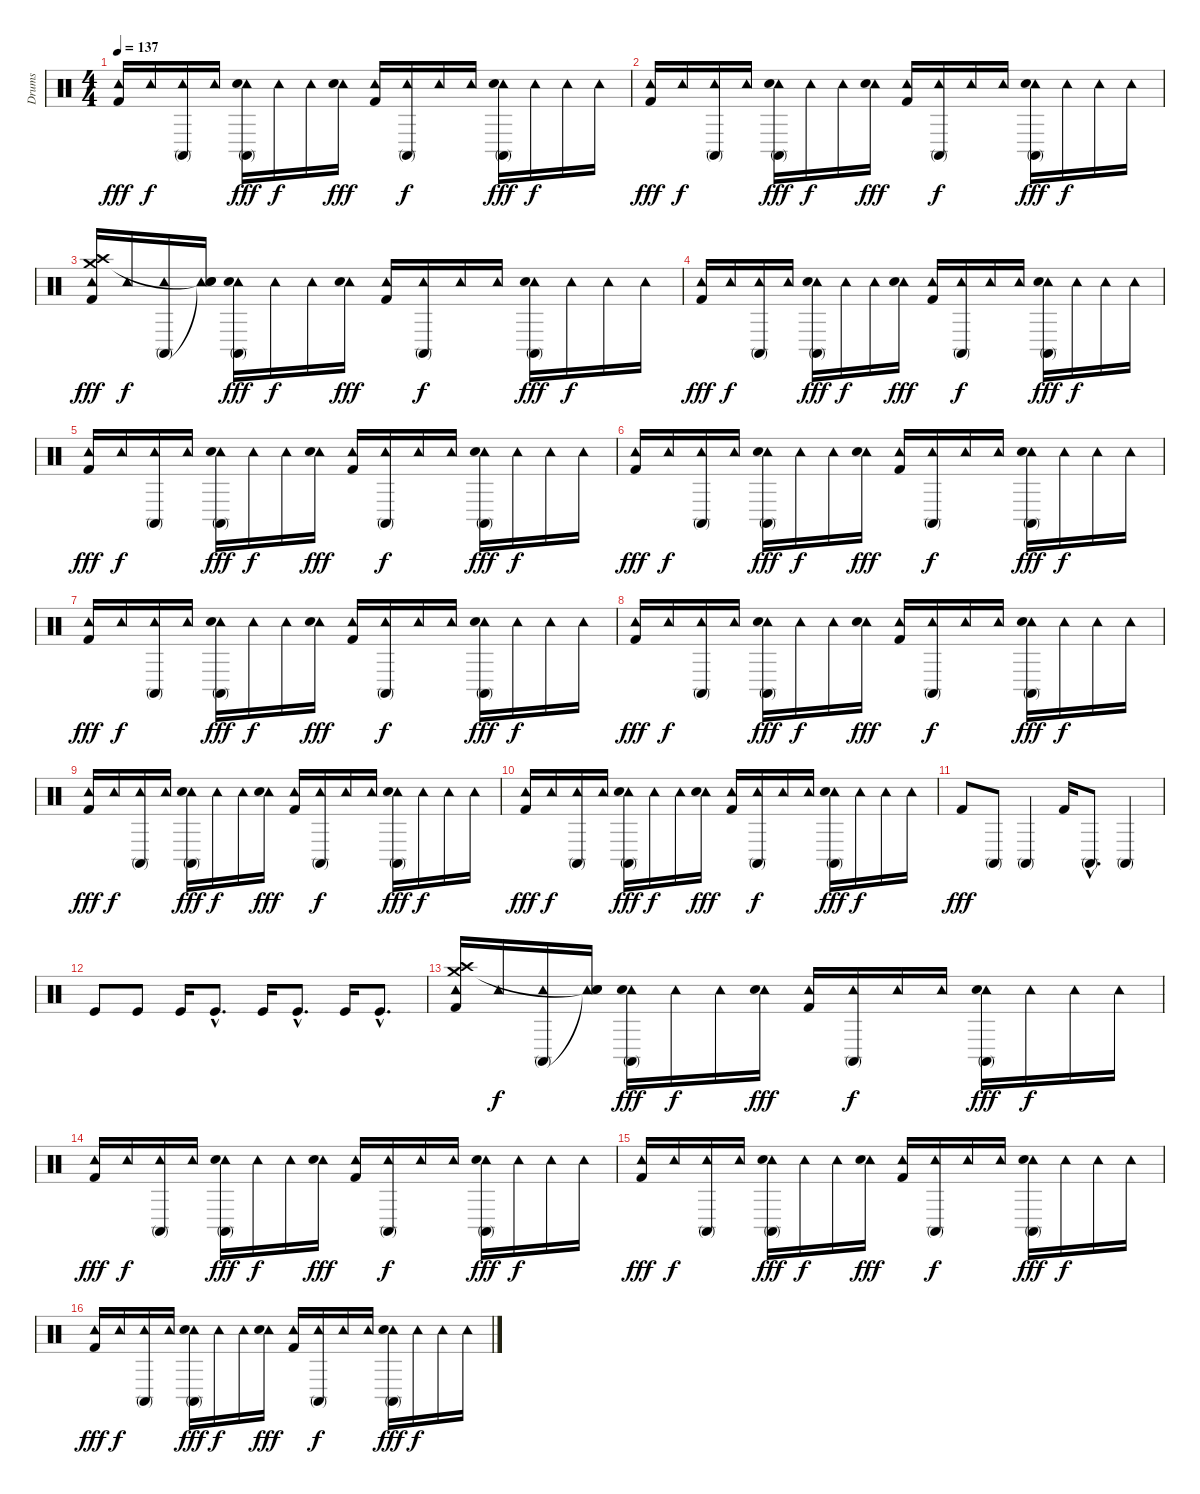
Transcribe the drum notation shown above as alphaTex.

\track ("Drums" "Drums") {instrument percussion}
\staff {score}
\articulation defaults
\ts (4 4)
\tempo 137
\clef neutral
\ks c
("Tambourine (hit)" "Kick (hit) 2").16{dy fff} "Tambourine (hit)".16{dy f} ("Tambourine (hit)" "Conga high (mute)").16 "Tambourine (hit)".16 ("Tambourine (hit)" "Conga high (mute)" "Electric Snare (hit)").16{dy fff} "Tambourine (hit)".16{dy f} "Tambourine (hit)".16 ("Tambourine (hit)" "Electric Snare (hit)").16{dy fff} ("Tambourine (hit)" "Kick (hit) 2").16 ("Tambourine (hit)" "Conga high (mute)").16{dy f} "Tambourine (hit)".16 "Tambourine (hit)".16 ("Tambourine (hit)" "Conga high (mute)" "Electric Snare (hit)").16{dy fff} "Tambourine (hit)".16{dy f} "Tambourine (hit)".16 "Tambourine (hit)".16 |
("Tambourine (hit)" "Kick (hit) 2").16{dy fff} "Tambourine (hit)".16{dy f} ("Tambourine (hit)" "Conga high (mute)").16 "Tambourine (hit)".16 ("Tambourine (hit)" "Conga high (mute)" "Electric Snare (hit)").16{dy fff} "Tambourine (hit)".16{dy f} "Tambourine (hit)".16 ("Tambourine (hit)" "Electric Snare (hit)").16{dy fff} ("Tambourine (hit)" "Kick (hit) 2").16 ("Tambourine (hit)" "Conga high (mute)").16{dy f} "Tambourine (hit)".16 "Tambourine (hit)".16 ("Tambourine (hit)" "Conga high (mute)" "Electric Snare (hit)").16{dy fff} "Tambourine (hit)".16{dy f} "Tambourine (hit)".16 "Tambourine (hit)".16 |
("Tambourine (hit)" "Crash high (hit)" "Crash medium (hit)" "Kick (hit) 2").16{dy fff} "Tambourine (hit)".16{dy f} ("Tambourine (hit)" "Conga high (mute)").16 ("Tambourine (hit)" "Snare (hit)"{t} "Snare (hit)"{t}).16 ("Tambourine (hit)" "Conga high (mute)" "Electric Snare (hit)").16{dy fff} "Tambourine (hit)".16{dy f} "Tambourine (hit)".16 ("Tambourine (hit)" "Electric Snare (hit)").16{dy fff} ("Tambourine (hit)" "Kick (hit) 2").16 ("Tambourine (hit)" "Conga high (mute)").16{dy f} "Tambourine (hit)".16 "Tambourine (hit)".16 ("Tambourine (hit)" "Conga high (mute)" "Electric Snare (hit)").16{dy fff} "Tambourine (hit)".16{dy f} "Tambourine (hit)".16 "Tambourine (hit)".16 |
("Tambourine (hit)" "Kick (hit) 2").16{dy fff} "Tambourine (hit)".16{dy f} ("Tambourine (hit)" "Conga high (mute)").16 "Tambourine (hit)".16 ("Tambourine (hit)" "Conga high (mute)" "Electric Snare (hit)").16{dy fff} "Tambourine (hit)".16{dy f} "Tambourine (hit)".16 ("Tambourine (hit)" "Electric Snare (hit)").16{dy fff} ("Tambourine (hit)" "Kick (hit) 2").16 ("Tambourine (hit)" "Conga high (mute)").16{dy f} "Tambourine (hit)".16 "Tambourine (hit)".16 ("Tambourine (hit)" "Conga high (mute)" "Electric Snare (hit)").16{dy fff} "Tambourine (hit)".16{dy f} "Tambourine (hit)".16 "Tambourine (hit)".16 |
("Tambourine (hit)" "Kick (hit) 2").16{dy fff} "Tambourine (hit)".16{dy f} ("Tambourine (hit)" "Conga high (mute)").16 "Tambourine (hit)".16 ("Tambourine (hit)" "Conga high (mute)" "Electric Snare (hit)").16{dy fff} "Tambourine (hit)".16{dy f} "Tambourine (hit)".16 ("Tambourine (hit)" "Electric Snare (hit)").16{dy fff} ("Tambourine (hit)" "Kick (hit) 2").16 ("Tambourine (hit)" "Conga high (mute)").16{dy f} "Tambourine (hit)".16 "Tambourine (hit)".16 ("Tambourine (hit)" "Conga high (mute)" "Electric Snare (hit)").16{dy fff} "Tambourine (hit)".16{dy f} "Tambourine (hit)".16 "Tambourine (hit)".16 |
("Tambourine (hit)" "Kick (hit) 2").16{dy fff} "Tambourine (hit)".16{dy f} ("Tambourine (hit)" "Conga high (mute)").16 "Tambourine (hit)".16 ("Tambourine (hit)" "Conga high (mute)" "Electric Snare (hit)").16{dy fff} "Tambourine (hit)".16{dy f} "Tambourine (hit)".16 ("Tambourine (hit)" "Electric Snare (hit)").16{dy fff} ("Tambourine (hit)" "Kick (hit) 2").16 ("Tambourine (hit)" "Conga high (mute)").16{dy f} "Tambourine (hit)".16 "Tambourine (hit)".16 ("Tambourine (hit)" "Conga high (mute)" "Electric Snare (hit)").16{dy fff} "Tambourine (hit)".16{dy f} "Tambourine (hit)".16 "Tambourine (hit)".16 |
("Tambourine (hit)" "Kick (hit) 2").16{dy fff} "Tambourine (hit)".16{dy f} ("Tambourine (hit)" "Conga high (mute)").16 "Tambourine (hit)".16 ("Tambourine (hit)" "Conga high (mute)" "Electric Snare (hit)").16{dy fff} "Tambourine (hit)".16{dy f} "Tambourine (hit)".16 ("Tambourine (hit)" "Electric Snare (hit)").16{dy fff} ("Tambourine (hit)" "Kick (hit) 2").16 ("Tambourine (hit)" "Conga high (mute)").16{dy f} "Tambourine (hit)".16 "Tambourine (hit)".16 ("Tambourine (hit)" "Conga high (mute)" "Electric Snare (hit)").16{dy fff} "Tambourine (hit)".16{dy f} "Tambourine (hit)".16 "Tambourine (hit)".16 |
("Tambourine (hit)" "Kick (hit) 2").16{dy fff} "Tambourine (hit)".16{dy f} ("Tambourine (hit)" "Conga high (mute)").16 "Tambourine (hit)".16 ("Tambourine (hit)" "Conga high (mute)" "Electric Snare (hit)").16{dy fff} "Tambourine (hit)".16{dy f} "Tambourine (hit)".16 ("Tambourine (hit)" "Electric Snare (hit)").16{dy fff} ("Tambourine (hit)" "Kick (hit) 2").16 ("Tambourine (hit)" "Conga high (mute)").16{dy f} "Tambourine (hit)".16 "Tambourine (hit)".16 ("Tambourine (hit)" "Conga high (mute)" "Electric Snare (hit)").16{dy fff} "Tambourine (hit)".16{dy f} "Tambourine (hit)".16 "Tambourine (hit)".16 |
("Tambourine (hit)" "Kick (hit) 2").16{dy fff} "Tambourine (hit)".16{dy f} ("Tambourine (hit)" "Conga high (mute)").16 "Tambourine (hit)".16 ("Tambourine (hit)" "Conga high (mute)" "Electric Snare (hit)").16{dy fff} "Tambourine (hit)".16{dy f} "Tambourine (hit)".16 ("Tambourine (hit)" "Electric Snare (hit)").16{dy fff} ("Tambourine (hit)" "Kick (hit) 2").16 ("Tambourine (hit)" "Conga high (mute)").16{dy f} "Tambourine (hit)".16 "Tambourine (hit)".16 ("Tambourine (hit)" "Conga high (mute)" "Electric Snare (hit)").16{dy fff} "Tambourine (hit)".16{dy f} "Tambourine (hit)".16 "Tambourine (hit)".16 |
("Tambourine (hit)" "Kick (hit) 2").16{dy fff} "Tambourine (hit)".16{dy f} ("Tambourine (hit)" "Conga high (mute)").16 "Tambourine (hit)".16 ("Tambourine (hit)" "Conga high (mute)" "Electric Snare (hit)").16{dy fff} "Tambourine (hit)".16{dy f} "Tambourine (hit)".16 ("Tambourine (hit)" "Electric Snare (hit)").16{dy fff} ("Tambourine (hit)" "Kick (hit) 2").16 ("Tambourine (hit)" "Conga high (mute)").16{dy f} "Tambourine (hit)".16 "Tambourine (hit)".16 ("Tambourine (hit)" "Conga high (mute)" "Electric Snare (hit)").16{dy fff} "Tambourine (hit)".16{dy f} "Tambourine (hit)".16 "Tambourine (hit)".16 |
"Kick (hit) 2".8{dy fff} "Conga high (mute)".8 "Conga high (mute)".4 "Kick (hit) 2".16 "Conga high (mute)"{hac}.8{d} "Conga high (mute)".4 |
"Kick (hit)".8 "Kick (hit)".8 "Kick (hit)".16 "Kick (hit)"{hac}.8{d} "Kick (hit)".16 "Kick (hit)"{hac}.8{d} "Kick (hit)".16 "Kick (hit)"{hac}.8{d} |
("Tambourine (hit)" "Crash high (hit)" "Crash medium (hit)" "Kick (hit) 2").16 "Tambourine (hit)".16{dy f} ("Tambourine (hit)" "Conga high (mute)").16 ("Tambourine (hit)" "Snare (hit)"{t} "Snare (hit)"{t}).16 ("Tambourine (hit)" "Conga high (mute)" "Electric Snare (hit)").16{dy fff} "Tambourine (hit)".16{dy f} "Tambourine (hit)".16 ("Tambourine (hit)" "Electric Snare (hit)").16{dy fff} ("Tambourine (hit)" "Kick (hit) 2").16 ("Tambourine (hit)" "Conga high (mute)").16{dy f} "Tambourine (hit)".16 "Tambourine (hit)".16 ("Tambourine (hit)" "Conga high (mute)" "Electric Snare (hit)").16{dy fff} "Tambourine (hit)".16{dy f} "Tambourine (hit)".16 "Tambourine (hit)".16 |
("Tambourine (hit)" "Kick (hit) 2").16{dy fff} "Tambourine (hit)".16{dy f} ("Tambourine (hit)" "Conga high (mute)").16 "Tambourine (hit)".16 ("Tambourine (hit)" "Conga high (mute)" "Electric Snare (hit)").16{dy fff} "Tambourine (hit)".16{dy f} "Tambourine (hit)".16 ("Tambourine (hit)" "Electric Snare (hit)").16{dy fff} ("Tambourine (hit)" "Kick (hit) 2").16 ("Tambourine (hit)" "Conga high (mute)").16{dy f} "Tambourine (hit)".16 "Tambourine (hit)".16 ("Tambourine (hit)" "Conga high (mute)" "Electric Snare (hit)").16{dy fff} "Tambourine (hit)".16{dy f} "Tambourine (hit)".16 "Tambourine (hit)".16 |
("Tambourine (hit)" "Kick (hit) 2").16{dy fff} "Tambourine (hit)".16{dy f} ("Tambourine (hit)" "Conga high (mute)").16 "Tambourine (hit)".16 ("Tambourine (hit)" "Conga high (mute)" "Electric Snare (hit)").16{dy fff} "Tambourine (hit)".16{dy f} "Tambourine (hit)".16 ("Tambourine (hit)" "Electric Snare (hit)").16{dy fff} ("Tambourine (hit)" "Kick (hit) 2").16 ("Tambourine (hit)" "Conga high (mute)").16{dy f} "Tambourine (hit)".16 "Tambourine (hit)".16 ("Tambourine (hit)" "Conga high (mute)" "Electric Snare (hit)").16{dy fff} "Tambourine (hit)".16{dy f} "Tambourine (hit)".16 "Tambourine (hit)".16 |
("Tambourine (hit)" "Kick (hit) 2").16{dy fff} "Tambourine (hit)".16{dy f} ("Tambourine (hit)" "Conga high (mute)").16 "Tambourine (hit)".16 ("Tambourine (hit)" "Conga high (mute)" "Electric Snare (hit)").16{dy fff} "Tambourine (hit)".16{dy f} "Tambourine (hit)".16 ("Tambourine (hit)" "Electric Snare (hit)").16{dy fff} ("Tambourine (hit)" "Kick (hit) 2").16 ("Tambourine (hit)" "Conga high (mute)").16{dy f} "Tambourine (hit)".16 "Tambourine (hit)".16 ("Tambourine (hit)" "Conga high (mute)" "Electric Snare (hit)").16{dy fff} "Tambourine (hit)".16{dy f} "Tambourine (hit)".16 "Tambourine (hit)".16
